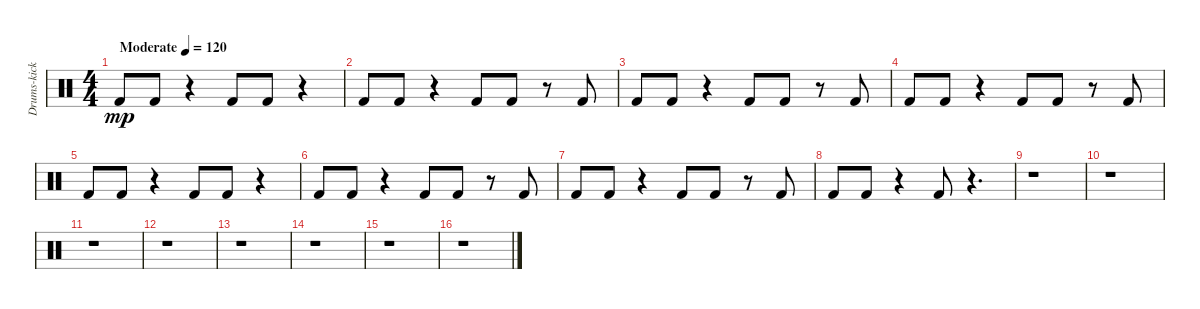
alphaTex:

\track ("Drums-kick drum 1" "Drums-kick") {instrument percussion}
\staff {score}
\articulation defaults
\ts (4 4)
\tempo (120 "Moderate")
\clef neutral
\ks c "Kick (hit) 2".8{dy mp} "Kick (hit) 2".8
r.4 "Kick (hit) 2".8 "Kick (hit) 2".8 r.4 |
"Kick (hit) 2".8 "Kick (hit) 2".8 r.4 "Kick (hit) 2".8 "Kick (hit) 2".8 r.8 "Kick (hit) 2".8 |
"Kick (hit) 2".8 "Kick (hit) 2".8 r.4 "Kick (hit) 2".8 "Kick (hit) 2".8 r.8 "Kick (hit) 2".8 |
"Kick (hit) 2".8 "Kick (hit) 2".8 r.4 "Kick (hit) 2".8 "Kick (hit) 2".8 r.8 "Kick (hit) 2".8 |
"Kick (hit) 2".8 "Kick (hit) 2".8 r.4 "Kick (hit) 2".8 "Kick (hit) 2".8 r.4 |
"Kick (hit) 2".8 "Kick (hit) 2".8 r.4 "Kick (hit) 2".8 "Kick (hit) 2".8 r.8 "Kick (hit) 2".8 |
"Kick (hit) 2".8 "Kick (hit) 2".8 r.4 "Kick (hit) 2".8 "Kick (hit) 2".8 r.8 "Kick (hit) 2".8 |
"Kick (hit) 2".8 "Kick (hit) 2".8 r.4 "Kick (hit) 2".8 r.4{d} |
r.1 |
r.1 |
r.1 |
r.1 |
r.1 |
r.1 |
r.1 |
r.1
